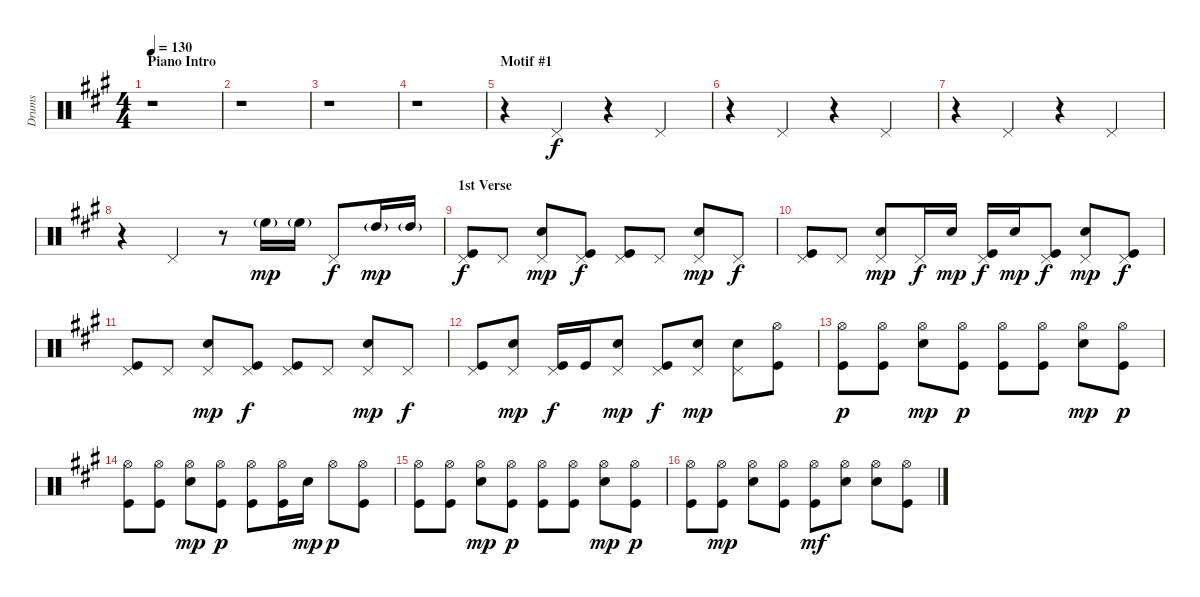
\track ("Drums" "Drums") {instrument percussion}
\staff {score}
\articulation defaults
\ts (4 4)
\section ("" "Piano Intro")
\tempo 130
\clef neutral
\ks a
r.1{dy f} |
r.1 |
r.1 |
r.1 |
\section ("" "Motif #1")
r.4 "Pedal Hi-Hat (hit)".4 r.4 "Pedal Hi-Hat (hit)".4 |
r.4 "Pedal Hi-Hat (hit)".4 r.4 "Pedal Hi-Hat (hit)".4 |
r.4 "Pedal Hi-Hat (hit)".4 r.4 "Pedal Hi-Hat (hit)".4 |
r.4 "Pedal Hi-Hat (hit)".4 r.8 "High Floor Tom (hit)"{g}.16{dy mp} "High Floor Tom (hit)"{g}.16 "Pedal Hi-Hat (hit)".8{dy f} "High Tom (hit)"{g}.16{dy mp} "High Tom (hit)"{g}.16 |
\section ("" "1st Verse")
("Pedal Hi-Hat (hit)" "Kick (hit)").8{dy f} "Pedal Hi-Hat (hit)".8 ("Pedal Hi-Hat (hit)" "Electric Snare (hit)").8{dy mp} ("Pedal Hi-Hat (hit)" "Kick (hit)").8{dy f} ("Pedal Hi-Hat (hit)" "Kick (hit)").8 "Pedal Hi-Hat (hit)".8 ("Pedal Hi-Hat (hit)" "Electric Snare (hit)").8{dy mp} "Pedal Hi-Hat (hit)".8{dy f} |
("Pedal Hi-Hat (hit)" "Kick (hit)").8 "Pedal Hi-Hat (hit)".8 ("Pedal Hi-Hat (hit)" "Electric Snare (hit)").8{dy mp} "Pedal Hi-Hat (hit)".16{dy f} "Electric Snare (hit)".16{dy mp} ("Pedal Hi-Hat (hit)" "Kick (hit)").16{dy f} "Electric Snare (hit)".16{dy mp} ("Pedal Hi-Hat (hit)" "Kick (hit)").8{dy f} ("Pedal Hi-Hat (hit)" "Electric Snare (hit)").8{dy mp} ("Pedal Hi-Hat (hit)" "Kick (hit)").8{dy f} |
("Pedal Hi-Hat (hit)" "Kick (hit)").8 "Pedal Hi-Hat (hit)".8 ("Pedal Hi-Hat (hit)" "Electric Snare (hit)").8{dy mp} ("Pedal Hi-Hat (hit)" "Kick (hit)").8{dy f} ("Pedal Hi-Hat (hit)" "Kick (hit)").8 "Pedal Hi-Hat (hit)".8 ("Pedal Hi-Hat (hit)" "Electric Snare (hit)").8{dy mp} "Pedal Hi-Hat (hit)".8{dy f} |
("Pedal Hi-Hat (hit)" "Kick (hit)").8 ("Pedal Hi-Hat (hit)" "Electric Snare (hit)").8{dy mp} ("Pedal Hi-Hat (hit)" "Kick (hit)").16{dy f} "Kick (hit)".16 ("Pedal Hi-Hat (hit)" "Electric Snare (hit)").8{dy mp} ("Pedal Hi-Hat (hit)" "Kick (hit)").8{dy f} ("Pedal Hi-Hat (hit)" "Electric Snare (hit)").8{dy mp} ("Pedal Hi-Hat (hit)" "Electric Snare (hit)").8 ("Hi-Hat (open)" "Kick (hit)").8 |
("Hi-Hat (open)" "Kick (hit)").8{dy p} ("Hi-Hat (open)" "Kick (hit)").8 ("Hi-Hat (open)" "Electric Snare (hit)").8{dy mp} ("Hi-Hat (open)" "Kick (hit)").8{dy p} ("Hi-Hat (open)" "Kick (hit)").8 ("Hi-Hat (open)" "Kick (hit)").8 ("Hi-Hat (open)" "Electric Snare (hit)").8{dy mp} ("Hi-Hat (open)" "Kick (hit)").8{dy p} |
("Hi-Hat (open)" "Kick (hit)").8 ("Hi-Hat (open)" "Kick (hit)").8 ("Hi-Hat (open)" "Electric Snare (hit)").8{dy mp} ("Hi-Hat (open)" "Kick (hit)").8{dy p} ("Hi-Hat (open)" "Kick (hit)").8 ("Hi-Hat (open)" "Kick (hit)").16 "Electric Snare (hit)".16{dy mp} "Hi-Hat (open)".8{dy p} ("Hi-Hat (open)" "Kick (hit)").8 |
("Hi-Hat (open)" "Kick (hit)").8 ("Hi-Hat (open)" "Kick (hit)").8 ("Hi-Hat (open)" "Electric Snare (hit)").8{dy mp} ("Hi-Hat (open)" "Kick (hit)").8{dy p} ("Hi-Hat (open)" "Kick (hit)").8 ("Hi-Hat (open)" "Kick (hit)").8 ("Hi-Hat (open)" "Electric Snare (hit)").8{dy mp} ("Hi-Hat (open)" "Kick (hit)").8{dy p} |
("Hi-Hat (open)" "Kick (hit)").8 ("Hi-Hat (open)" "Kick (hit)").8{dy mp} ("Hi-Hat (open)" "Electric Snare (hit)").8 ("Hi-Hat (open)" "Kick (hit)").8 ("Hi-Hat (open)" "Kick (hit)").8{dy mf} ("Hi-Hat (open)" "Electric Snare (hit)").8 ("Hi-Hat (open)" "Electric Snare (hit)").8 ("Hi-Hat (open)" "Kick (hit)").8
